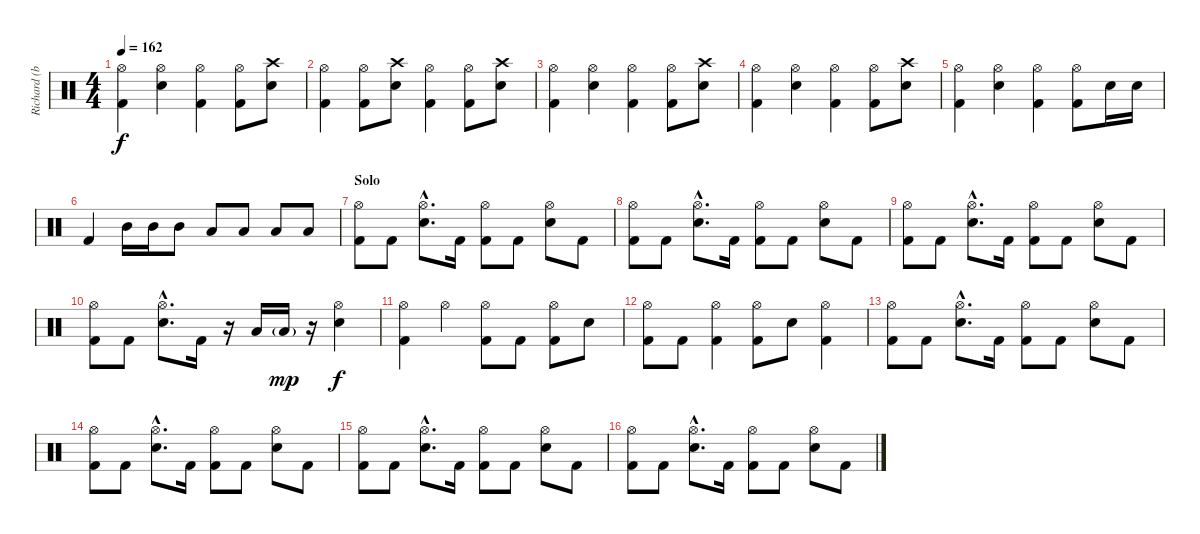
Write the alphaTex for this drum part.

\track ("Richard (batterie)" "Richard (b") {instrument percussion}
\staff {score}
\articulation defaults
\ts (4 4)
\tempo 162
\clef neutral
\ks c
("Hi-Hat (open)" "Kick (hit) 2").4{dy f} ("Hi-Hat (open)" "Snare (hit) 2").4 ("Hi-Hat (open)" "Kick (hit) 2").4 ("Hi-Hat (open)" "Kick (hit) 2").8 ("Crash high (hit)" "Snare (hit) 2").8 |
("Hi-Hat (open)" "Kick (hit) 2").4 ("Hi-Hat (open)" "Kick (hit) 2").8 ("Crash high (hit)" "Snare (hit) 2").8 ("Hi-Hat (open)" "Kick (hit) 2").4 ("Hi-Hat (open)" "Kick (hit) 2").8 ("Crash high (hit)" "Snare (hit) 2").8 |
("Hi-Hat (open)" "Kick (hit) 2").4 ("Hi-Hat (open)" "Snare (hit) 2").4 ("Hi-Hat (open)" "Kick (hit) 2").4 ("Hi-Hat (open)" "Kick (hit) 2").8 ("Crash high (hit)" "Snare (hit) 2").8 |
("Hi-Hat (open)" "Kick (hit) 2").4 ("Hi-Hat (open)" "Snare (hit) 2").4 ("Hi-Hat (open)" "Kick (hit) 2").4 ("Hi-Hat (open)" "Kick (hit) 2").8 ("Crash high (hit)" "Snare (hit) 2").8 |
("Hi-Hat (open)" "Kick (hit) 2").4 ("Hi-Hat (open)" "Snare (hit) 2").4 ("Hi-Hat (open)" "Kick (hit) 2").4 ("Hi-Hat (open)" "Kick (hit) 2").8 "Snare (hit) 2".16 "Snare (hit) 2".16 |
"Kick (hit) 2".4 "Mid Tom (hit)".16 "Mid Tom (hit)".16 "Mid Tom (hit)".8 "Low Tom (hit)".8 "Low Tom (hit)".8 "Low Floor Tom (hit)".8 "Low Floor Tom (hit)".8 |
\section ("" "Solo")
("Hi-Hat (open)" "Kick (hit) 2").8 "Kick (hit) 2".8 ("Hi-Hat (open)"{hac} "Snare (hit) 2"{hac}).8{d} "Kick (hit) 2".16 ("Hi-Hat (open)" "Kick (hit) 2").8 "Kick (hit) 2".8 ("Hi-Hat (open)" "Snare (hit) 2").8 "Kick (hit) 2".8 |
("Hi-Hat (open)" "Kick (hit) 2").8 "Kick (hit) 2".8 ("Hi-Hat (open)"{hac} "Snare (hit) 2"{hac}).8{d} "Kick (hit) 2".16 ("Hi-Hat (open)" "Kick (hit) 2").8 "Kick (hit) 2".8 ("Hi-Hat (open)" "Snare (hit) 2").8 "Kick (hit) 2".8 |
("Hi-Hat (open)" "Kick (hit) 2").8 "Kick (hit) 2".8 ("Hi-Hat (open)"{hac} "Snare (hit) 2"{hac}).8{d} "Kick (hit) 2".16 ("Hi-Hat (open)" "Kick (hit) 2").8 "Kick (hit) 2".8 ("Hi-Hat (open)" "Snare (hit) 2").8 "Kick (hit) 2".8 |
("Hi-Hat (open)" "Kick (hit) 2").8 "Kick (hit) 2".8 ("Hi-Hat (open)"{hac} "Snare (hit) 2"{hac}).8{d} "Kick (hit) 2".16 r.16 "Low Tom (hit)".16 "Low Tom (hit)"{g}.16{dy mp} r.16 ("Hi-Hat (open)" "Snare (hit) 2").4{dy f} |
("Hi-Hat (open)" "Kick (hit) 2").4 "Hi-Hat (open)".4 ("Hi-Hat (open)" "Kick (hit) 2").8 "Kick (hit) 2".8 ("Hi-Hat (open)" "Kick (hit) 2").8 "Snare (hit) 2".8 |
("Hi-Hat (open)" "Kick (hit) 2").8 "Kick (hit) 2".8 ("Hi-Hat (open)" "Kick (hit) 2").4 ("Hi-Hat (open)" "Kick (hit) 2").8 "Snare (hit) 2".8 ("Hi-Hat (open)" "Kick (hit) 2").4 |
("Hi-Hat (open)" "Kick (hit) 2").8 "Kick (hit) 2".8 ("Hi-Hat (open)"{hac} "Snare (hit) 2"{hac}).8{d} "Kick (hit) 2".16 ("Hi-Hat (open)" "Kick (hit) 2").8 "Kick (hit) 2".8 ("Hi-Hat (open)" "Snare (hit) 2").8 "Kick (hit) 2".8 |
("Hi-Hat (open)" "Kick (hit) 2").8 "Kick (hit) 2".8 ("Hi-Hat (open)"{hac} "Snare (hit) 2"{hac}).8{d} "Kick (hit) 2".16 ("Hi-Hat (open)" "Kick (hit) 2").8 "Kick (hit) 2".8 ("Hi-Hat (open)" "Snare (hit) 2").8 "Kick (hit) 2".8 |
("Hi-Hat (open)" "Kick (hit) 2").8 "Kick (hit) 2".8 ("Hi-Hat (open)"{hac} "Snare (hit) 2"{hac}).8{d} "Kick (hit) 2".16 ("Hi-Hat (open)" "Kick (hit) 2").8 "Kick (hit) 2".8 ("Hi-Hat (open)" "Snare (hit) 2").8 "Kick (hit) 2".8 |
("Hi-Hat (open)" "Kick (hit) 2").8 "Kick (hit) 2".8 ("Hi-Hat (open)"{hac} "Snare (hit) 2"{hac}).8{d} "Kick (hit) 2".16 ("Hi-Hat (open)" "Kick (hit) 2").8 "Kick (hit) 2".8 ("Hi-Hat (open)" "Snare (hit) 2").8 "Kick (hit) 2".8
